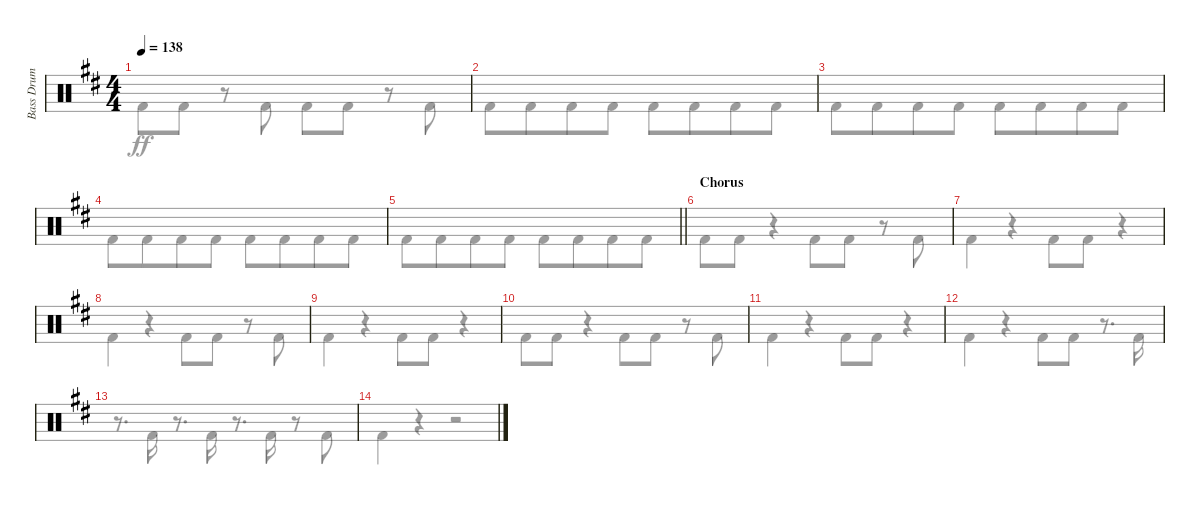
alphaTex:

\track ("Bass Drum" "Bass Drum") {instrument percussion}
\staff {score}
\articulation defaults
\voice
\ts (4 4)
\tempo 138
\clef neutral
\ks d
|
|
|
|
\barLineRight lightlight
|
\section ("" "Chorus")
|
|
|
|
|
|
|
|
\voice
\clef neutral
\ks d "Kick (hit) 2".8{dy ff} "Kick (hit) 2".8
r.8 "Kick (hit) 2".8 "Kick (hit) 2".8 "Kick (hit) 2".8 r.8 "Kick (hit) 2".8 |
"Kick (hit) 2".8 "Kick (hit) 2".8{beam merge} "Kick (hit) 2".8 "Kick (hit) 2".8 "Kick (hit) 2".8 "Kick (hit) 2".8{beam merge} "Kick (hit) 2".8 "Kick (hit) 2".8 |
"Kick (hit) 2".8 "Kick (hit) 2".8{beam merge} "Kick (hit) 2".8 "Kick (hit) 2".8 "Kick (hit) 2".8 "Kick (hit) 2".8{beam merge} "Kick (hit) 2".8 "Kick (hit) 2".8 |
"Kick (hit) 2".8 "Kick (hit) 2".8{beam merge} "Kick (hit) 2".8 "Kick (hit) 2".8 "Kick (hit) 2".8 "Kick (hit) 2".8{beam merge} "Kick (hit) 2".8 "Kick (hit) 2".8 |
\barLineRight lightlight "Kick (hit) 2".8 "Kick (hit) 2".8{beam merge} "Kick (hit) 2".8 "Kick (hit) 2".8 "Kick (hit) 2".8 "Kick (hit) 2".8{beam merge} "Kick (hit) 2".8 "Kick (hit) 2".8
|
"Kick (hit) 2".8 "Kick (hit) 2".8 r.4 "Kick (hit) 2".8 "Kick (hit) 2".8 r.8 "Kick (hit) 2".8 |
"Kick (hit) 2".4 r.4 "Kick (hit) 2".8 "Kick (hit) 2".8 r.4 |
"Kick (hit) 2".4 r.4 "Kick (hit) 2".8 "Kick (hit) 2".8 r.8 "Kick (hit) 2".8 |
"Kick (hit) 2".4 r.4 "Kick (hit) 2".8 "Kick (hit) 2".8 r.4 |
"Kick (hit) 2".8 "Kick (hit) 2".8 r.4 "Kick (hit) 2".8 "Kick (hit) 2".8 r.8 "Kick (hit) 2".8 |
"Kick (hit) 2".4 r.4 "Kick (hit) 2".8 "Kick (hit) 2".8 r.4 |
"Kick (hit) 2".4 r.4 "Kick (hit) 2".8 "Kick (hit) 2".8 r.8{d} "Kick (hit) 2".16 |
r.8{d} "Kick (hit) 2".16 r.8{d} "Kick (hit) 2".16 r.8{d} "Kick (hit) 2".16 r.8 "Kick (hit) 2".8 |
"Kick (hit) 2".4 r.4 r.2
